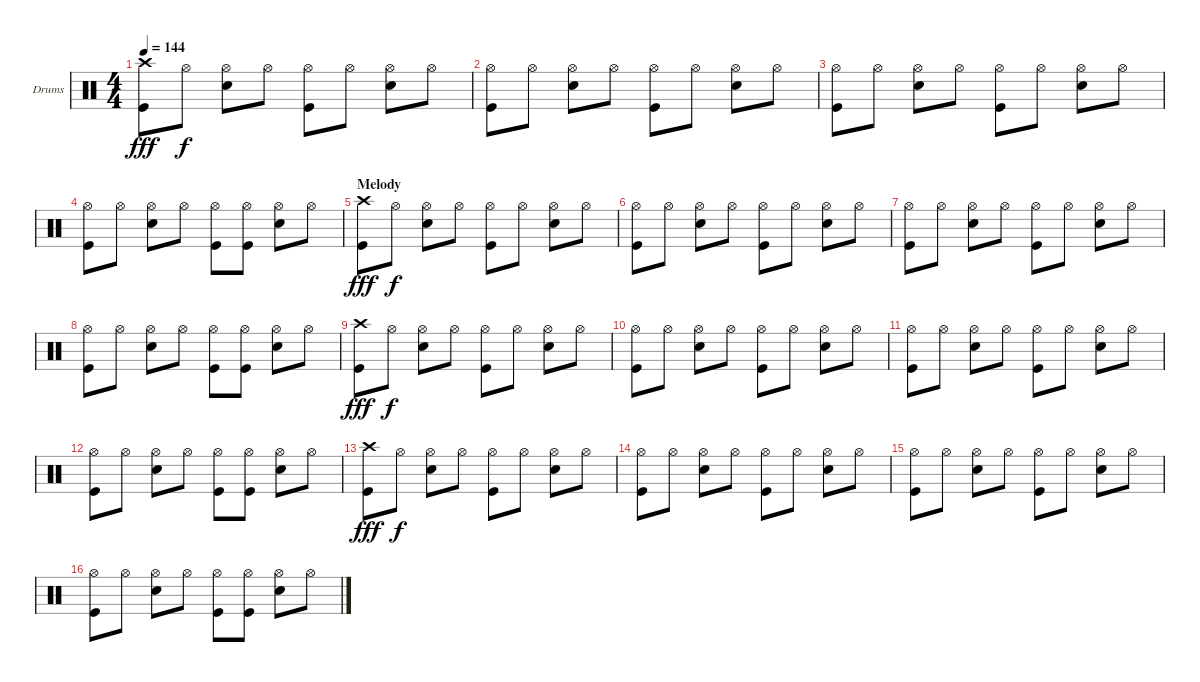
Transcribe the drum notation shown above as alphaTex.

\bracketExtendMode groupsimilarinstruments
\firstSystemTrackNameOrientation horizontal
\otherSystemsTrackNameOrientation horizontal
\track ("Drums" "Drums") {instrument percussion}
\staff {score}
\articulation defaults
\ts (4 4)
\tempo 144
\clef neutral
\ks c
("Crash high (hit)" "Kick (hit)").8{dy fff} "Hi-Hat (open)".8{dy f} ("Hi-Hat (open)" "Snare (hit) 2").8 "Hi-Hat (open)".8 ("Hi-Hat (open)" "Kick (hit)").8 "Hi-Hat (open)".8 ("Hi-Hat (open)" "Snare (hit) 2").8 "Hi-Hat (open)".8 |
("Hi-Hat (open)" "Kick (hit)").8 "Hi-Hat (open)".8 ("Hi-Hat (open)" "Snare (hit) 2").8 "Hi-Hat (open)".8 ("Hi-Hat (open)" "Kick (hit)").8 "Hi-Hat (open)".8 ("Hi-Hat (open)" "Snare (hit) 2").8 "Hi-Hat (open)".8 |
("Hi-Hat (open)" "Kick (hit)").8 "Hi-Hat (open)".8 ("Hi-Hat (open)" "Snare (hit) 2").8 "Hi-Hat (open)".8 ("Hi-Hat (open)" "Kick (hit)").8 "Hi-Hat (open)".8 ("Hi-Hat (open)" "Snare (hit) 2").8 "Hi-Hat (open)".8 |
("Hi-Hat (open)" "Kick (hit)").8 "Hi-Hat (open)".8 ("Hi-Hat (open)" "Snare (hit) 2").8 "Hi-Hat (open)".8 ("Hi-Hat (open)" "Kick (hit)").8 ("Hi-Hat (open)" "Kick (hit)").8 ("Hi-Hat (open)" "Snare (hit) 2").8 "Hi-Hat (open)".8 |
\section ("" "Melody")
("Crash high (hit)" "Kick (hit)").8{dy fff} "Hi-Hat (open)".8{dy f} ("Hi-Hat (open)" "Snare (hit) 2").8 "Hi-Hat (open)".8 ("Hi-Hat (open)" "Kick (hit)").8 "Hi-Hat (open)".8 ("Hi-Hat (open)" "Snare (hit) 2").8 "Hi-Hat (open)".8 |
("Hi-Hat (open)" "Kick (hit)").8 "Hi-Hat (open)".8 ("Hi-Hat (open)" "Snare (hit) 2").8 "Hi-Hat (open)".8 ("Hi-Hat (open)" "Kick (hit)").8 "Hi-Hat (open)".8 ("Hi-Hat (open)" "Snare (hit) 2").8 "Hi-Hat (open)".8 |
("Hi-Hat (open)" "Kick (hit)").8 "Hi-Hat (open)".8 ("Hi-Hat (open)" "Snare (hit) 2").8 "Hi-Hat (open)".8 ("Hi-Hat (open)" "Kick (hit)").8 "Hi-Hat (open)".8 ("Hi-Hat (open)" "Snare (hit) 2").8 "Hi-Hat (open)".8 |
("Hi-Hat (open)" "Kick (hit)").8 "Hi-Hat (open)".8 ("Hi-Hat (open)" "Snare (hit) 2").8 "Hi-Hat (open)".8 ("Hi-Hat (open)" "Kick (hit)").8 ("Hi-Hat (open)" "Kick (hit)").8 ("Hi-Hat (open)" "Snare (hit) 2").8 "Hi-Hat (open)".8 |
("Crash high (hit)" "Kick (hit)").8{dy fff} "Hi-Hat (open)".8{dy f} ("Hi-Hat (open)" "Snare (hit) 2").8 "Hi-Hat (open)".8 ("Hi-Hat (open)" "Kick (hit)").8 "Hi-Hat (open)".8 ("Hi-Hat (open)" "Snare (hit) 2").8 "Hi-Hat (open)".8 |
("Hi-Hat (open)" "Kick (hit)").8 "Hi-Hat (open)".8 ("Hi-Hat (open)" "Snare (hit) 2").8 "Hi-Hat (open)".8 ("Hi-Hat (open)" "Kick (hit)").8 "Hi-Hat (open)".8 ("Hi-Hat (open)" "Snare (hit) 2").8 "Hi-Hat (open)".8 |
("Hi-Hat (open)" "Kick (hit)").8 "Hi-Hat (open)".8 ("Hi-Hat (open)" "Snare (hit) 2").8 "Hi-Hat (open)".8 ("Hi-Hat (open)" "Kick (hit)").8 "Hi-Hat (open)".8 ("Hi-Hat (open)" "Snare (hit) 2").8 "Hi-Hat (open)".8 |
("Hi-Hat (open)" "Kick (hit)").8 "Hi-Hat (open)".8 ("Hi-Hat (open)" "Snare (hit) 2").8 "Hi-Hat (open)".8 ("Hi-Hat (open)" "Kick (hit)").8 ("Hi-Hat (open)" "Kick (hit)").8 ("Hi-Hat (open)" "Snare (hit) 2").8 "Hi-Hat (open)".8 |
("Crash high (hit)" "Kick (hit)").8{dy fff} "Hi-Hat (open)".8{dy f} ("Hi-Hat (open)" "Snare (hit) 2").8 "Hi-Hat (open)".8 ("Hi-Hat (open)" "Kick (hit)").8 "Hi-Hat (open)".8 ("Hi-Hat (open)" "Snare (hit) 2").8 "Hi-Hat (open)".8 |
("Hi-Hat (open)" "Kick (hit)").8 "Hi-Hat (open)".8 ("Hi-Hat (open)" "Snare (hit) 2").8 "Hi-Hat (open)".8 ("Hi-Hat (open)" "Kick (hit)").8 "Hi-Hat (open)".8 ("Hi-Hat (open)" "Snare (hit) 2").8 "Hi-Hat (open)".8 |
("Hi-Hat (open)" "Kick (hit)").8 "Hi-Hat (open)".8 ("Hi-Hat (open)" "Snare (hit) 2").8 "Hi-Hat (open)".8 ("Hi-Hat (open)" "Kick (hit)").8 "Hi-Hat (open)".8 ("Hi-Hat (open)" "Snare (hit) 2").8 "Hi-Hat (open)".8 |
("Hi-Hat (open)" "Kick (hit)").8 "Hi-Hat (open)".8 ("Hi-Hat (open)" "Snare (hit) 2").8 "Hi-Hat (open)".8 ("Hi-Hat (open)" "Kick (hit)").8 ("Hi-Hat (open)" "Kick (hit)").8 ("Hi-Hat (open)" "Snare (hit) 2").8 "Hi-Hat (open)".8
